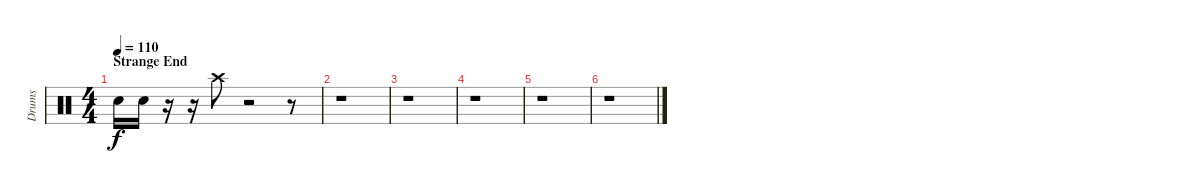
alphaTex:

\track ("Drums" "Drums") {instrument percussion}
\staff {score}
\articulation defaults
\ts (4 4)
\section ("" "Strange End")
\tempo 110
\clef neutral
\ks c "Electric Snare (hit)".16{dy f} "Electric Snare (hit)".16
r.16 r.16 "Crash high (hit)".8 r.2 r.8 |
r.1 |
r.1 |
r.1 |
r.1 |
r.1
